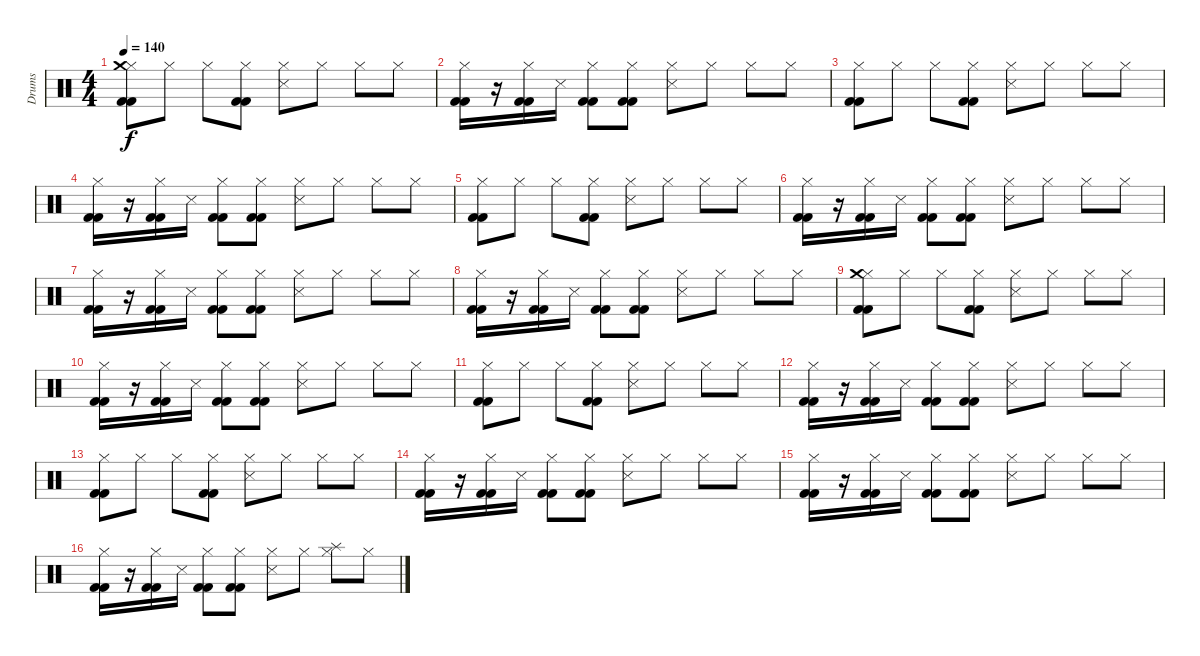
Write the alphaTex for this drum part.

\track ("Drums" "Drums") {instrument percussion}
\staff {score}
\articulation defaults
\ts (4 4)
\tempo 140
\clef neutral
\ks c
("Hi-Hat (closed)" "Kick (hit) 2" "Crash medium (hit)" "Kick (hit) 2").8{dy f} "Hi-Hat (closed)".8 "Hi-Hat (closed)".8 ("Hi-Hat (closed)" "Kick (hit) 2" "Kick (hit) 2").8 ("Hi-Hat (closed)" "Snare (side stick) 3").8 "Hi-Hat (closed)".8 "Hi-Hat (closed)".8 "Hi-Hat (closed)".8 |
("Kick (hit) 2" "Hi-Hat (closed)" "Kick (hit) 2").16 r.16 ("Kick (hit) 2" "Kick (hit) 2" "Hi-Hat (closed)").16 "Snare (side stick) 3".16 ("Kick (hit) 2" "Kick (hit) 2" "Hi-Hat (closed)").8 ("Kick (hit) 2" "Kick (hit) 2" "Hi-Hat (closed)").8 ("Snare (side stick) 3" "Hi-Hat (closed)").8 "Hi-Hat (closed)".8 "Hi-Hat (closed)".8 "Hi-Hat (closed)".8 |
("Hi-Hat (closed)" "Kick (hit) 2" "Kick (hit) 2").8 "Hi-Hat (closed)".8 "Hi-Hat (closed)".8 ("Hi-Hat (closed)" "Kick (hit) 2" "Kick (hit) 2").8 ("Hi-Hat (closed)" "Snare (side stick) 3").8 "Hi-Hat (closed)".8 "Hi-Hat (closed)".8 "Hi-Hat (closed)".8 |
("Kick (hit) 2" "Hi-Hat (closed)" "Kick (hit) 2").16 r.16 ("Kick (hit) 2" "Kick (hit) 2" "Hi-Hat (closed)").16 "Snare (side stick) 3".16 ("Kick (hit) 2" "Kick (hit) 2" "Hi-Hat (closed)").8 ("Kick (hit) 2" "Kick (hit) 2" "Hi-Hat (closed)").8 ("Snare (side stick) 3" "Hi-Hat (closed)").8 "Hi-Hat (closed)".8 "Hi-Hat (closed)".8 "Hi-Hat (closed)".8 |
("Hi-Hat (closed)" "Kick (hit) 2" "Kick (hit) 2").8 "Hi-Hat (closed)".8 "Hi-Hat (closed)".8 ("Hi-Hat (closed)" "Kick (hit) 2" "Kick (hit) 2").8 ("Hi-Hat (closed)" "Snare (side stick) 3").8 "Hi-Hat (closed)".8 "Hi-Hat (closed)".8 "Hi-Hat (closed)".8 |
("Kick (hit) 2" "Hi-Hat (closed)" "Kick (hit) 2").16 r.16 ("Kick (hit) 2" "Kick (hit) 2" "Hi-Hat (closed)").16 "Snare (side stick) 3".16 ("Kick (hit) 2" "Kick (hit) 2" "Hi-Hat (closed)").8 ("Kick (hit) 2" "Kick (hit) 2" "Hi-Hat (closed)").8 ("Snare (side stick) 3" "Hi-Hat (closed)").8 "Hi-Hat (closed)".8 "Hi-Hat (closed)".8 "Hi-Hat (closed)".8 |
("Kick (hit) 2" "Hi-Hat (closed)" "Kick (hit) 2").16 r.16 ("Kick (hit) 2" "Kick (hit) 2" "Hi-Hat (closed)").16 "Snare (side stick) 3".16 ("Kick (hit) 2" "Kick (hit) 2" "Hi-Hat (closed)").8 ("Kick (hit) 2" "Kick (hit) 2" "Hi-Hat (closed)").8 ("Snare (side stick) 3" "Hi-Hat (closed)").8 "Hi-Hat (closed)".8 "Hi-Hat (closed)".8 "Hi-Hat (closed)".8 |
("Kick (hit) 2" "Hi-Hat (closed)" "Kick (hit) 2").16 r.16 ("Kick (hit) 2" "Kick (hit) 2" "Hi-Hat (closed)").16 "Snare (side stick) 3".16 ("Kick (hit) 2" "Kick (hit) 2" "Hi-Hat (closed)").8 ("Kick (hit) 2" "Kick (hit) 2" "Hi-Hat (closed)").8 ("Snare (side stick) 3" "Hi-Hat (closed)").8 "Hi-Hat (closed)".8 "Hi-Hat (closed)".8 "Hi-Hat (closed)".8 |
("Hi-Hat (closed)" "Kick (hit) 2" "Crash medium (hit)" "Kick (hit) 2").8 "Hi-Hat (closed)".8 "Hi-Hat (closed)".8 ("Hi-Hat (closed)" "Kick (hit) 2" "Kick (hit) 2").8 ("Hi-Hat (closed)" "Snare (side stick) 3").8 "Hi-Hat (closed)".8 "Hi-Hat (closed)".8 "Hi-Hat (closed)".8 |
("Kick (hit) 2" "Hi-Hat (closed)" "Kick (hit) 2").16 r.16 ("Kick (hit) 2" "Kick (hit) 2" "Hi-Hat (closed)").16 "Snare (side stick) 3".16 ("Kick (hit) 2" "Kick (hit) 2" "Hi-Hat (closed)").8 ("Kick (hit) 2" "Kick (hit) 2" "Hi-Hat (closed)").8 ("Snare (side stick) 3" "Hi-Hat (closed)").8 "Hi-Hat (closed)".8 "Hi-Hat (closed)".8 "Hi-Hat (closed)".8 |
("Hi-Hat (closed)" "Kick (hit) 2" "Kick (hit) 2").8 "Hi-Hat (closed)".8 "Hi-Hat (closed)".8 ("Hi-Hat (closed)" "Kick (hit) 2" "Kick (hit) 2").8 ("Hi-Hat (closed)" "Snare (side stick) 3").8 "Hi-Hat (closed)".8 "Hi-Hat (closed)".8 "Hi-Hat (closed)".8 |
("Kick (hit) 2" "Hi-Hat (closed)" "Kick (hit) 2").16 r.16 ("Kick (hit) 2" "Kick (hit) 2" "Hi-Hat (closed)").16 "Snare (side stick) 3".16 ("Kick (hit) 2" "Kick (hit) 2" "Hi-Hat (closed)").8 ("Kick (hit) 2" "Kick (hit) 2" "Hi-Hat (closed)").8 ("Snare (side stick) 3" "Hi-Hat (closed)").8 "Hi-Hat (closed)".8 "Hi-Hat (closed)".8 "Hi-Hat (closed)".8 |
("Hi-Hat (closed)" "Kick (hit) 2" "Kick (hit) 2").8 "Hi-Hat (closed)".8 "Hi-Hat (closed)".8 ("Hi-Hat (closed)" "Kick (hit) 2" "Kick (hit) 2").8 ("Hi-Hat (closed)" "Snare (side stick) 3").8 "Hi-Hat (closed)".8 "Hi-Hat (closed)".8 "Hi-Hat (closed)".8 |
("Kick (hit) 2" "Hi-Hat (closed)" "Kick (hit) 2").16 r.16 ("Kick (hit) 2" "Kick (hit) 2" "Hi-Hat (closed)").16 "Snare (side stick) 3".16 ("Kick (hit) 2" "Kick (hit) 2" "Hi-Hat (closed)").8 ("Kick (hit) 2" "Kick (hit) 2" "Hi-Hat (closed)").8 ("Snare (side stick) 3" "Hi-Hat (closed)").8 "Hi-Hat (closed)".8 "Hi-Hat (closed)".8 "Hi-Hat (closed)".8 |
("Kick (hit) 2" "Hi-Hat (closed)" "Kick (hit) 2").16 r.16 ("Kick (hit) 2" "Kick (hit) 2" "Hi-Hat (closed)").16 "Snare (side stick) 3".16 ("Kick (hit) 2" "Kick (hit) 2" "Hi-Hat (closed)").8 ("Kick (hit) 2" "Kick (hit) 2" "Hi-Hat (closed)").8 ("Snare (side stick) 3" "Hi-Hat (closed)").8 "Hi-Hat (closed)".8 "Hi-Hat (closed)".8 "Hi-Hat (closed)".8 |
("Kick (hit) 2" "Hi-Hat (closed)" "Kick (hit) 2").16 r.16 ("Kick (hit) 2" "Kick (hit) 2" "Hi-Hat (closed)").16 "Snare (side stick) 3".16 ("Kick (hit) 2" "Kick (hit) 2" "Hi-Hat (closed)").8 ("Kick (hit) 2" "Kick (hit) 2" "Hi-Hat (closed)").8 ("Snare (side stick) 3" "Hi-Hat (closed)").8 "Hi-Hat (closed)".8 ("Hi-Hat (closed)" "Splash (hit)").8 "Hi-Hat (closed)".8
